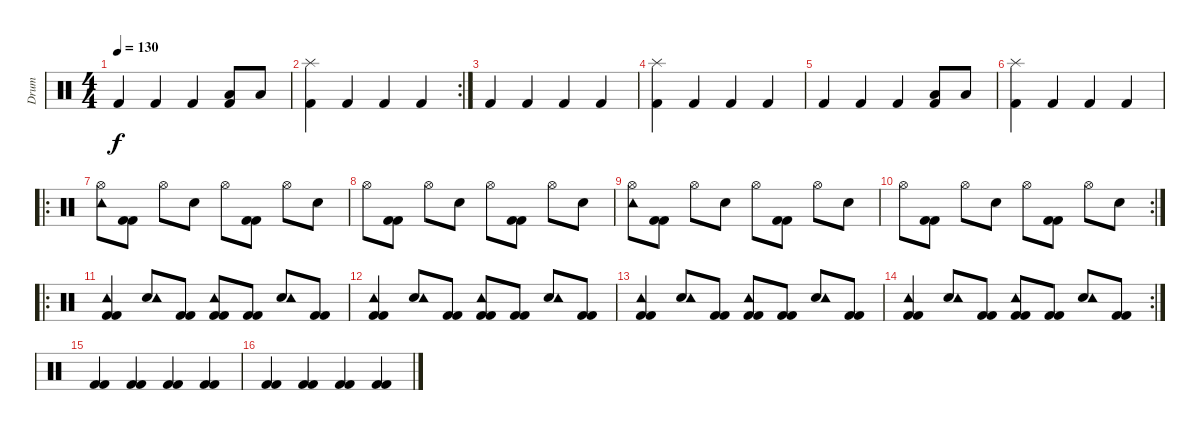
\track ("Drum" "Drum") {instrument percussion}
\staff {score}
\articulation defaults
\ts (4 4)
\tempo 130
\clef neutral
\ks c "Kick (hit) 2".4{dy f} "Kick (hit) 2".4 "Kick (hit) 2".4
("Kick (hit) 2" "Low Tom (hit)").8 "Low Tom (hit)".8 |
\rc 2
("Kick (hit) 2" "Splash (hit)").4 "Kick (hit) 2".4 "Kick (hit) 2".4 "Kick (hit) 2".4 |
"Kick (hit) 2".4 "Kick (hit) 2".4 "Kick (hit) 2".4 "Kick (hit) 2".4 |
("Kick (hit) 2" "Splash (hit)").4 "Kick (hit) 2".4 "Kick (hit) 2".4 "Kick (hit) 2".4 |
"Kick (hit) 2".4 "Kick (hit) 2".4 "Kick (hit) 2".4 ("Kick (hit) 2" "Low Tom (hit)").8 "Low Tom (hit)".8 |
("Kick (hit) 2" "Splash (hit)").4 "Kick (hit) 2".4 "Kick (hit) 2".4 "Kick (hit) 2".4 |
\ro
("Hi-Hat (open)" "Tambourine (hit)").8 ("Kick (hit) 2" "Kick (hit) 2").8 "Hi-Hat (open)".8 "Snare (hit) 2".8 "Hi-Hat (open)".8 ("Kick (hit) 2" "Kick (hit) 2").8 "Hi-Hat (open)".8 "Snare (hit) 2".8 |
"Hi-Hat (open)".8 ("Kick (hit) 2" "Kick (hit) 2").8 "Hi-Hat (open)".8 "Snare (hit) 2".8 "Hi-Hat (open)".8 ("Kick (hit) 2" "Kick (hit) 2").8 "Hi-Hat (open)".8 "Snare (hit) 2".8 |
("Hi-Hat (open)" "Tambourine (hit)").8 ("Kick (hit) 2" "Kick (hit) 2").8 "Hi-Hat (open)".8 "Snare (hit) 2".8 "Hi-Hat (open)".8 ("Kick (hit) 2" "Kick (hit) 2").8 "Hi-Hat (open)".8 "Snare (hit) 2".8 |
\rc 2 "Hi-Hat (open)".8
("Kick (hit) 2" "Kick (hit) 2").8 "Hi-Hat (open)".8 "Snare (hit) 2".8 "Hi-Hat (open)".8 ("Kick (hit) 2" "Kick (hit) 2").8 "Hi-Hat (open)".8 "Snare (hit) 2".8 |
\ro
("Kick (hit) 2" "Kick (hit) 2" "Tambourine (hit)").4 ("Snare (hit) 2" "Tambourine (hit)").8 ("Kick (hit) 2" "Kick (hit) 2").8 ("Kick (hit) 2" "Kick (hit) 2" "Tambourine (hit)").8 ("Kick (hit) 2" "Kick (hit) 2").8 ("Snare (hit) 2" "Tambourine (hit)").8 ("Kick (hit) 2" "Kick (hit) 2").8 |
("Kick (hit) 2" "Kick (hit) 2" "Tambourine (hit)").4 ("Snare (hit) 2" "Tambourine (hit)").8 ("Kick (hit) 2" "Kick (hit) 2").8 ("Kick (hit) 2" "Kick (hit) 2" "Tambourine (hit)").8 ("Kick (hit) 2" "Kick (hit) 2").8 ("Snare (hit) 2" "Tambourine (hit)").8 ("Kick (hit) 2" "Kick (hit) 2").8 |
("Kick (hit) 2" "Kick (hit) 2" "Tambourine (hit)").4 ("Snare (hit) 2" "Tambourine (hit)").8 ("Kick (hit) 2" "Kick (hit) 2").8 ("Kick (hit) 2" "Kick (hit) 2" "Tambourine (hit)").8 ("Kick (hit) 2" "Kick (hit) 2").8 ("Snare (hit) 2" "Tambourine (hit)").8 ("Kick (hit) 2" "Kick (hit) 2").8 |
\rc 2
("Kick (hit) 2" "Kick (hit) 2" "Tambourine (hit)").4 ("Snare (hit) 2" "Tambourine (hit)").8 ("Kick (hit) 2" "Kick (hit) 2").8 ("Kick (hit) 2" "Kick (hit) 2" "Tambourine (hit)").8 ("Kick (hit) 2" "Kick (hit) 2").8 ("Snare (hit) 2" "Tambourine (hit)").8 ("Kick (hit) 2" "Kick (hit) 2").8 |
("Kick (hit) 2" "Kick (hit) 2").4 ("Kick (hit) 2" "Kick (hit) 2").4 ("Kick (hit) 2" "Kick (hit) 2").4 ("Kick (hit) 2" "Kick (hit) 2").4 |
("Kick (hit) 2" "Kick (hit) 2").4 ("Kick (hit) 2" "Kick (hit) 2").4 ("Kick (hit) 2" "Kick (hit) 2").4 ("Kick (hit) 2" "Kick (hit) 2").4
